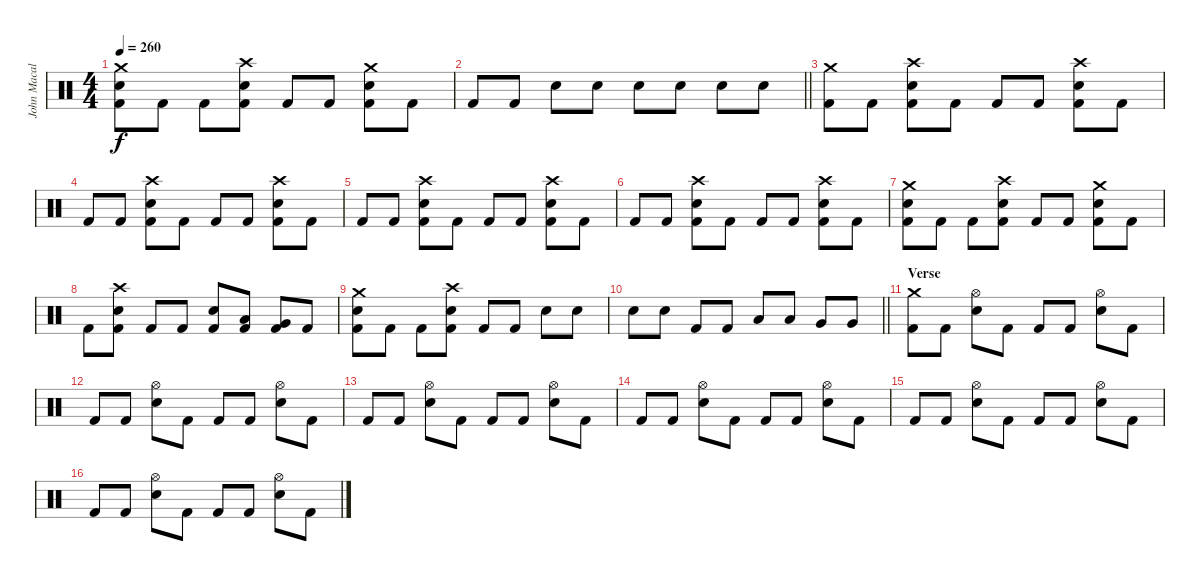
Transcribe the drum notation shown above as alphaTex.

\track ("John Macaluso" "John Macal") {instrument percussion}
\staff {score}
\articulation defaults
\ts (4 4)
\tempo 260
\clef neutral
\ks c
("Crash medium (hit)" "Snare (hit) 2" "Kick (hit) 2").8{dy f} "Kick (hit) 2".8 "Kick (hit) 2".8 ("Crash high (hit)" "Snare (hit) 2" "Kick (hit) 2").8 "Kick (hit) 2".8 "Kick (hit) 2".8 ("Crash medium (hit)" "Snare (hit) 2" "Kick (hit) 2").8 "Kick (hit) 2".8 |
\barLineRight lightlight "Kick (hit) 2".8 "Kick (hit) 2".8 "Snare (hit) 2".8 "Snare (hit) 2".8 "Snare (hit) 2".8 "Snare (hit) 2".8 "Snare (hit) 2".8 "Snare (hit) 2".8
|
("Crash medium (hit)" "Kick (hit) 2").8 "Kick (hit) 2".8 ("Crash high (hit)" "Snare (hit) 2" "Kick (hit) 2").8 "Kick (hit) 2".8 "Kick (hit) 2".8 "Kick (hit) 2".8 ("Crash high (hit)" "Snare (hit) 2" "Kick (hit) 2").8 "Kick (hit) 2".8 |
"Kick (hit) 2".8 "Kick (hit) 2".8 ("Crash high (hit)" "Snare (hit) 2" "Kick (hit) 2").8 "Kick (hit) 2".8 "Kick (hit) 2".8 "Kick (hit) 2".8 ("Crash high (hit)" "Snare (hit) 2" "Kick (hit) 2").8 "Kick (hit) 2".8 |
"Kick (hit) 2".8 "Kick (hit) 2".8 ("Crash high (hit)" "Snare (hit) 2" "Kick (hit) 2").8 "Kick (hit) 2".8 "Kick (hit) 2".8 "Kick (hit) 2".8 ("Crash high (hit)" "Snare (hit) 2" "Kick (hit) 2").8 "Kick (hit) 2".8 |
"Kick (hit) 2".8 "Kick (hit) 2".8 ("Crash high (hit)" "Snare (hit) 2" "Kick (hit) 2").8 "Kick (hit) 2".8 "Kick (hit) 2".8 "Kick (hit) 2".8 ("Crash high (hit)" "Snare (hit) 2" "Kick (hit) 2").8 "Kick (hit) 2".8 |
("Crash medium (hit)" "Snare (hit) 2" "Kick (hit) 2").8 "Kick (hit) 2".8 "Kick (hit) 2".8 ("Crash high (hit)" "Snare (hit) 2" "Kick (hit) 2").8 "Kick (hit) 2".8 "Kick (hit) 2".8 ("Crash medium (hit)" "Snare (hit) 2" "Kick (hit) 2").8 "Kick (hit) 2".8 |
"Kick (hit) 2".8 ("Crash high (hit)" "Snare (hit) 2" "Kick (hit) 2").8 "Kick (hit) 2".8 "Kick (hit) 2".8 ("Snare (hit) 2" "Kick (hit) 2").8 ("Low Tom (hit)" "Kick (hit) 2").8 ("Very Low Tom (hit)" "Kick (hit) 2").8 "Kick (hit) 2".8 |
("Crash medium (hit)" "Snare (hit) 2" "Kick (hit) 2").8 "Kick (hit) 2".8 "Kick (hit) 2".8 ("Crash high (hit)" "Snare (hit) 2" "Kick (hit) 2").8 "Kick (hit) 2".8 "Kick (hit) 2".8 "Snare (hit) 2".8 "Snare (hit) 2".8 |
\barLineRight lightlight "Snare (hit) 2".8 "Snare (hit) 2".8 "Kick (hit) 2".8 "Kick (hit) 2".8 "Low Tom (hit)".8 "Low Tom (hit)".8 "Very Low Tom (hit)".8 "Very Low Tom (hit)".8
|
\section ("" "Verse")
("Crash medium (hit)" "Kick (hit) 2").8 "Kick (hit) 2".8 ("Hi-Hat (open)" "Snare (hit) 2").8 "Kick (hit) 2".8 "Kick (hit) 2".8 "Kick (hit) 2".8 ("Hi-Hat (open)" "Snare (hit) 2").8 "Kick (hit) 2".8 |
"Kick (hit) 2".8 "Kick (hit) 2".8 ("Hi-Hat (open)" "Snare (hit) 2").8 "Kick (hit) 2".8 "Kick (hit) 2".8 "Kick (hit) 2".8 ("Hi-Hat (open)" "Snare (hit) 2").8 "Kick (hit) 2".8 |
"Kick (hit) 2".8 "Kick (hit) 2".8 ("Hi-Hat (open)" "Snare (hit) 2").8 "Kick (hit) 2".8 "Kick (hit) 2".8 "Kick (hit) 2".8 ("Hi-Hat (open)" "Snare (hit) 2").8 "Kick (hit) 2".8 |
"Kick (hit) 2".8 "Kick (hit) 2".8 ("Hi-Hat (open)" "Snare (hit) 2").8 "Kick (hit) 2".8 "Kick (hit) 2".8 "Kick (hit) 2".8 ("Hi-Hat (open)" "Snare (hit) 2").8 "Kick (hit) 2".8 |
"Kick (hit) 2".8 "Kick (hit) 2".8 ("Hi-Hat (open)" "Snare (hit) 2").8 "Kick (hit) 2".8 "Kick (hit) 2".8 "Kick (hit) 2".8 ("Hi-Hat (open)" "Snare (hit) 2").8 "Kick (hit) 2".8 |
"Kick (hit) 2".8 "Kick (hit) 2".8 ("Hi-Hat (open)" "Snare (hit) 2").8 "Kick (hit) 2".8 "Kick (hit) 2".8 "Kick (hit) 2".8 ("Hi-Hat (open)" "Snare (hit) 2").8 "Kick (hit) 2".8
